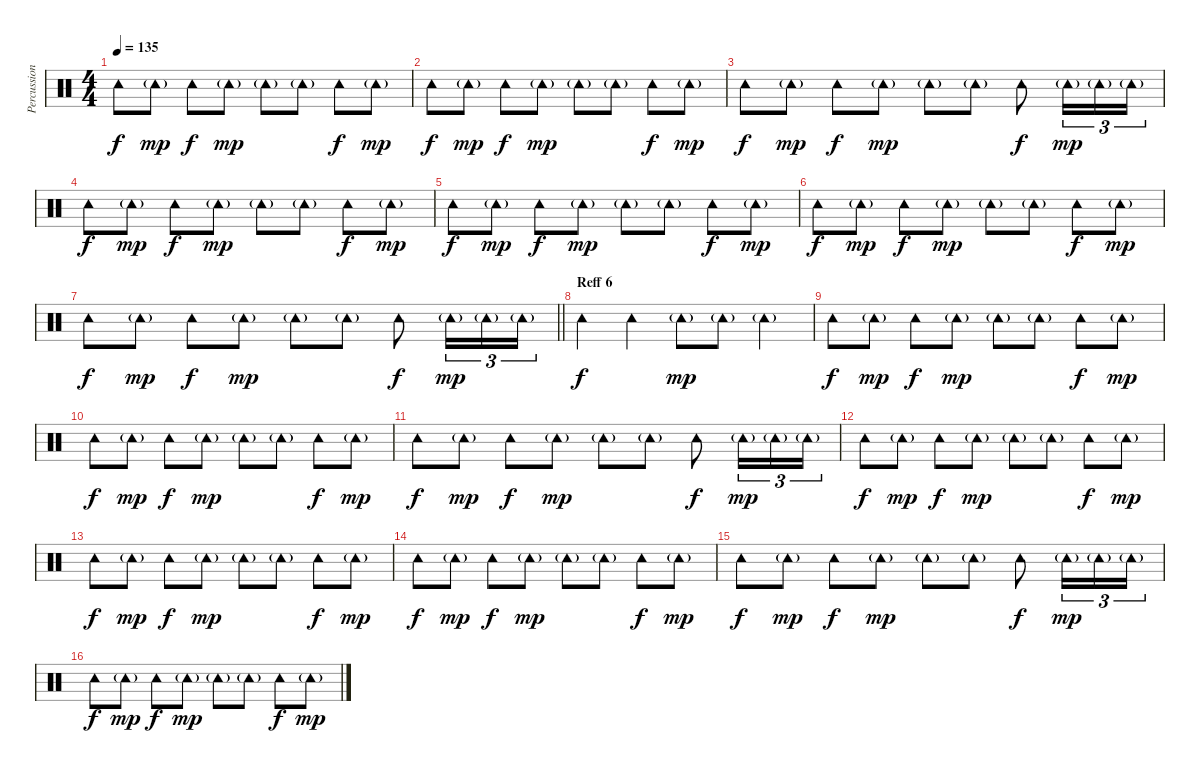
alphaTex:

\track ("Percussion 2" "Percussion") {instrument percussion}
\staff {score}
\articulation defaults
\ts (4 4)
\tempo 135
\clef neutral
\ks c "Tambourine (hit)".8{dy f} "Tambourine (hit)"{g}.8{dy mp} "Tambourine (hit)".8{dy f} "Tambourine (hit)"{g}.8{dy mp} "Tambourine (hit)"{g}.8 "Tambourine (hit)"{g}.8 "Tambourine (hit)".8{dy f} "Tambourine (hit)"{g}.8{dy mp}
|
"Tambourine (hit)".8{dy f} "Tambourine (hit)"{g}.8{dy mp} "Tambourine (hit)".8{dy f} "Tambourine (hit)"{g}.8{dy mp} "Tambourine (hit)"{g}.8 "Tambourine (hit)"{g}.8 "Tambourine (hit)".8{dy f} "Tambourine (hit)"{g}.8{dy mp} |
"Tambourine (hit)".8{dy f} "Tambourine (hit)"{g}.8{dy mp} "Tambourine (hit)".8{dy f} "Tambourine (hit)"{g}.8{dy mp} "Tambourine (hit)"{g}.8 "Tambourine (hit)"{g}.8 "Tambourine (hit)".8{dy f} "Tambourine (hit)"{g}.16{tu (3 2) dy mp} "Tambourine (hit)"{g}.16{tu (3 2)} "Tambourine (hit)"{g}.16{tu (3 2)} |
"Tambourine (hit)".8{dy f} "Tambourine (hit)"{g}.8{dy mp} "Tambourine (hit)".8{dy f} "Tambourine (hit)"{g}.8{dy mp} "Tambourine (hit)"{g}.8 "Tambourine (hit)"{g}.8 "Tambourine (hit)".8{dy f} "Tambourine (hit)"{g}.8{dy mp} |
"Tambourine (hit)".8{dy f} "Tambourine (hit)"{g}.8{dy mp} "Tambourine (hit)".8{dy f} "Tambourine (hit)"{g}.8{dy mp} "Tambourine (hit)"{g}.8 "Tambourine (hit)"{g}.8 "Tambourine (hit)".8{dy f} "Tambourine (hit)"{g}.8{dy mp} |
"Tambourine (hit)".8{dy f} "Tambourine (hit)"{g}.8{dy mp} "Tambourine (hit)".8{dy f} "Tambourine (hit)"{g}.8{dy mp} "Tambourine (hit)"{g}.8 "Tambourine (hit)"{g}.8 "Tambourine (hit)".8{dy f} "Tambourine (hit)"{g}.8{dy mp} |
\barLineRight lightlight "Tambourine (hit)".8{dy f} "Tambourine (hit)"{g}.8{dy mp} "Tambourine (hit)".8{dy f} "Tambourine (hit)"{g}.8{dy mp} "Tambourine (hit)"{g}.8 "Tambourine (hit)"{g}.8 "Tambourine (hit)".8{dy f} "Tambourine (hit)"{g}.16{tu (3 2) dy mp} "Tambourine (hit)"{g}.16{tu (3 2)} "Tambourine (hit)"{g}.16{tu (3 2)}
|
\section ("" "Reff 6")
"Tambourine (hit)".4{dy f} "Tambourine (hit)".4 "Tambourine (hit)"{g}.8{dy mp} "Tambourine (hit)"{g}.8 "Tambourine (hit)"{g}.4 |
"Tambourine (hit)".8{dy f} "Tambourine (hit)"{g}.8{dy mp} "Tambourine (hit)".8{dy f} "Tambourine (hit)"{g}.8{dy mp} "Tambourine (hit)"{g}.8 "Tambourine (hit)"{g}.8 "Tambourine (hit)".8{dy f} "Tambourine (hit)"{g}.8{dy mp} |
"Tambourine (hit)".8{dy f} "Tambourine (hit)"{g}.8{dy mp} "Tambourine (hit)".8{dy f} "Tambourine (hit)"{g}.8{dy mp} "Tambourine (hit)"{g}.8 "Tambourine (hit)"{g}.8 "Tambourine (hit)".8{dy f} "Tambourine (hit)"{g}.8{dy mp} |
"Tambourine (hit)".8{dy f} "Tambourine (hit)"{g}.8{dy mp} "Tambourine (hit)".8{dy f} "Tambourine (hit)"{g}.8{dy mp} "Tambourine (hit)"{g}.8 "Tambourine (hit)"{g}.8 "Tambourine (hit)".8{dy f} "Tambourine (hit)"{g}.16{tu (3 2) dy mp} "Tambourine (hit)"{g}.16{tu (3 2)} "Tambourine (hit)"{g}.16{tu (3 2)} |
"Tambourine (hit)".8{dy f} "Tambourine (hit)"{g}.8{dy mp} "Tambourine (hit)".8{dy f} "Tambourine (hit)"{g}.8{dy mp} "Tambourine (hit)"{g}.8 "Tambourine (hit)"{g}.8 "Tambourine (hit)".8{dy f} "Tambourine (hit)"{g}.8{dy mp} |
"Tambourine (hit)".8{dy f} "Tambourine (hit)"{g}.8{dy mp} "Tambourine (hit)".8{dy f} "Tambourine (hit)"{g}.8{dy mp} "Tambourine (hit)"{g}.8 "Tambourine (hit)"{g}.8 "Tambourine (hit)".8{dy f} "Tambourine (hit)"{g}.8{dy mp} |
"Tambourine (hit)".8{dy f} "Tambourine (hit)"{g}.8{dy mp} "Tambourine (hit)".8{dy f} "Tambourine (hit)"{g}.8{dy mp} "Tambourine (hit)"{g}.8 "Tambourine (hit)"{g}.8 "Tambourine (hit)".8{dy f} "Tambourine (hit)"{g}.8{dy mp} |
"Tambourine (hit)".8{dy f} "Tambourine (hit)"{g}.8{dy mp} "Tambourine (hit)".8{dy f} "Tambourine (hit)"{g}.8{dy mp} "Tambourine (hit)"{g}.8 "Tambourine (hit)"{g}.8 "Tambourine (hit)".8{dy f} "Tambourine (hit)"{g}.16{tu (3 2) dy mp} "Tambourine (hit)"{g}.16{tu (3 2)} "Tambourine (hit)"{g}.16{tu (3 2)} |
"Tambourine (hit)".8{dy f} "Tambourine (hit)"{g}.8{dy mp} "Tambourine (hit)".8{dy f} "Tambourine (hit)"{g}.8{dy mp} "Tambourine (hit)"{g}.8 "Tambourine (hit)"{g}.8 "Tambourine (hit)".8{dy f} "Tambourine (hit)"{g}.8{dy mp}
